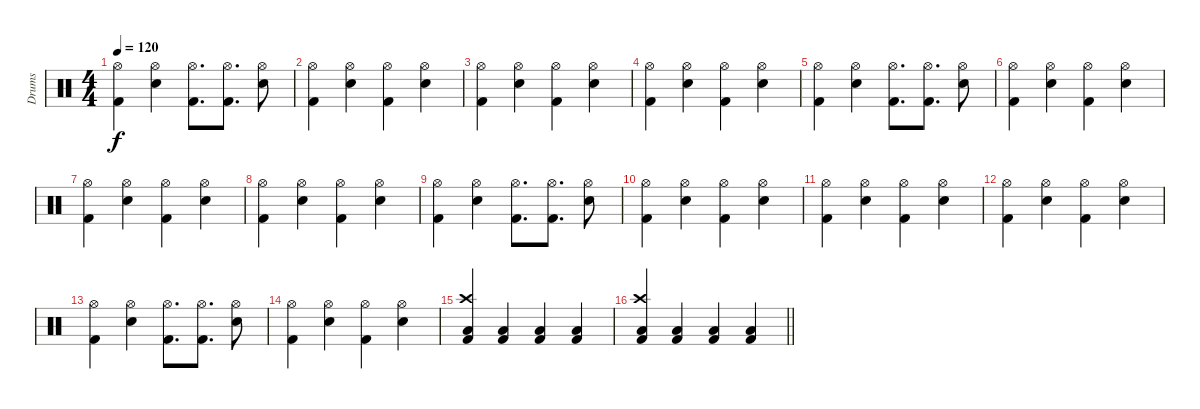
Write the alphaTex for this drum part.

\track ("Drums" "Drums") {instrument percussion}
\staff {score}
\articulation defaults
\ts (4 4)
\tempo 120
\clef neutral
\ks c
("Hi-Hat (open)" "Kick (hit) 2").4{dy f} ("Hi-Hat (open)" "Snare (hit) 2").4 ("Hi-Hat (open)" "Kick (hit) 2").8{d} ("Hi-Hat (open)" "Kick (hit) 2").8{d} ("Hi-Hat (open)" "Snare (hit) 2").8 |
("Hi-Hat (open)" "Kick (hit) 2").4 ("Hi-Hat (open)" "Snare (hit) 2").4 ("Hi-Hat (open)" "Kick (hit) 2").4 ("Hi-Hat (open)" "Snare (hit) 2").4 |
("Hi-Hat (open)" "Kick (hit) 2").4 ("Hi-Hat (open)" "Snare (hit) 2").4 ("Hi-Hat (open)" "Kick (hit) 2").4 ("Hi-Hat (open)" "Snare (hit) 2").4 |
("Hi-Hat (open)" "Kick (hit) 2").4 ("Hi-Hat (open)" "Snare (hit) 2").4 ("Hi-Hat (open)" "Kick (hit) 2").4 ("Hi-Hat (open)" "Snare (hit) 2").4 |
("Hi-Hat (open)" "Kick (hit) 2").4 ("Hi-Hat (open)" "Snare (hit) 2").4 ("Hi-Hat (open)" "Kick (hit) 2").8{d} ("Hi-Hat (open)" "Kick (hit) 2").8{d} ("Hi-Hat (open)" "Snare (hit) 2").8 |
("Hi-Hat (open)" "Kick (hit) 2").4 ("Hi-Hat (open)" "Snare (hit) 2").4 ("Hi-Hat (open)" "Kick (hit) 2").4 ("Hi-Hat (open)" "Snare (hit) 2").4 |
("Hi-Hat (open)" "Kick (hit) 2").4 ("Hi-Hat (open)" "Snare (hit) 2").4 ("Hi-Hat (open)" "Kick (hit) 2").4 ("Hi-Hat (open)" "Snare (hit) 2").4 |
("Hi-Hat (open)" "Kick (hit) 2").4 ("Hi-Hat (open)" "Snare (hit) 2").4 ("Hi-Hat (open)" "Kick (hit) 2").4 ("Hi-Hat (open)" "Snare (hit) 2").4 |
("Hi-Hat (open)" "Kick (hit) 2").4 ("Hi-Hat (open)" "Snare (hit) 2").4 ("Hi-Hat (open)" "Kick (hit) 2").8{d} ("Hi-Hat (open)" "Kick (hit) 2").8{d} ("Hi-Hat (open)" "Snare (hit) 2").8 |
("Hi-Hat (open)" "Kick (hit) 2").4 ("Hi-Hat (open)" "Snare (hit) 2").4 ("Hi-Hat (open)" "Kick (hit) 2").4 ("Hi-Hat (open)" "Snare (hit) 2").4 |
("Hi-Hat (open)" "Kick (hit) 2").4 ("Hi-Hat (open)" "Snare (hit) 2").4 ("Hi-Hat (open)" "Kick (hit) 2").4 ("Hi-Hat (open)" "Snare (hit) 2").4 |
("Hi-Hat (open)" "Kick (hit) 2").4 ("Hi-Hat (open)" "Snare (hit) 2").4 ("Hi-Hat (open)" "Kick (hit) 2").4 ("Hi-Hat (open)" "Snare (hit) 2").4 |
("Hi-Hat (open)" "Kick (hit) 2").4 ("Hi-Hat (open)" "Snare (hit) 2").4 ("Hi-Hat (open)" "Kick (hit) 2").8{d} ("Hi-Hat (open)" "Kick (hit) 2").8{d} ("Hi-Hat (open)" "Snare (hit) 2").8 |
("Hi-Hat (open)" "Kick (hit) 2").4 ("Hi-Hat (open)" "Snare (hit) 2").4 ("Hi-Hat (open)" "Kick (hit) 2").4 ("Hi-Hat (open)" "Snare (hit) 2").4 |
("Crash high (hit)" "Low Floor Tom (hit)" "Kick (hit) 2").4 ("Low Floor Tom (hit)" "Kick (hit) 2").4 ("Low Floor Tom (hit)" "Kick (hit) 2").4 ("Low Floor Tom (hit)" "Kick (hit) 2").4 |
\barLineRight lightlight
("Crash high (hit)" "Low Floor Tom (hit)" "Kick (hit) 2").4 ("Low Floor Tom (hit)" "Kick (hit) 2").4 ("Low Floor Tom (hit)" "Kick (hit) 2").4 ("Low Floor Tom (hit)" "Kick (hit) 2").4
